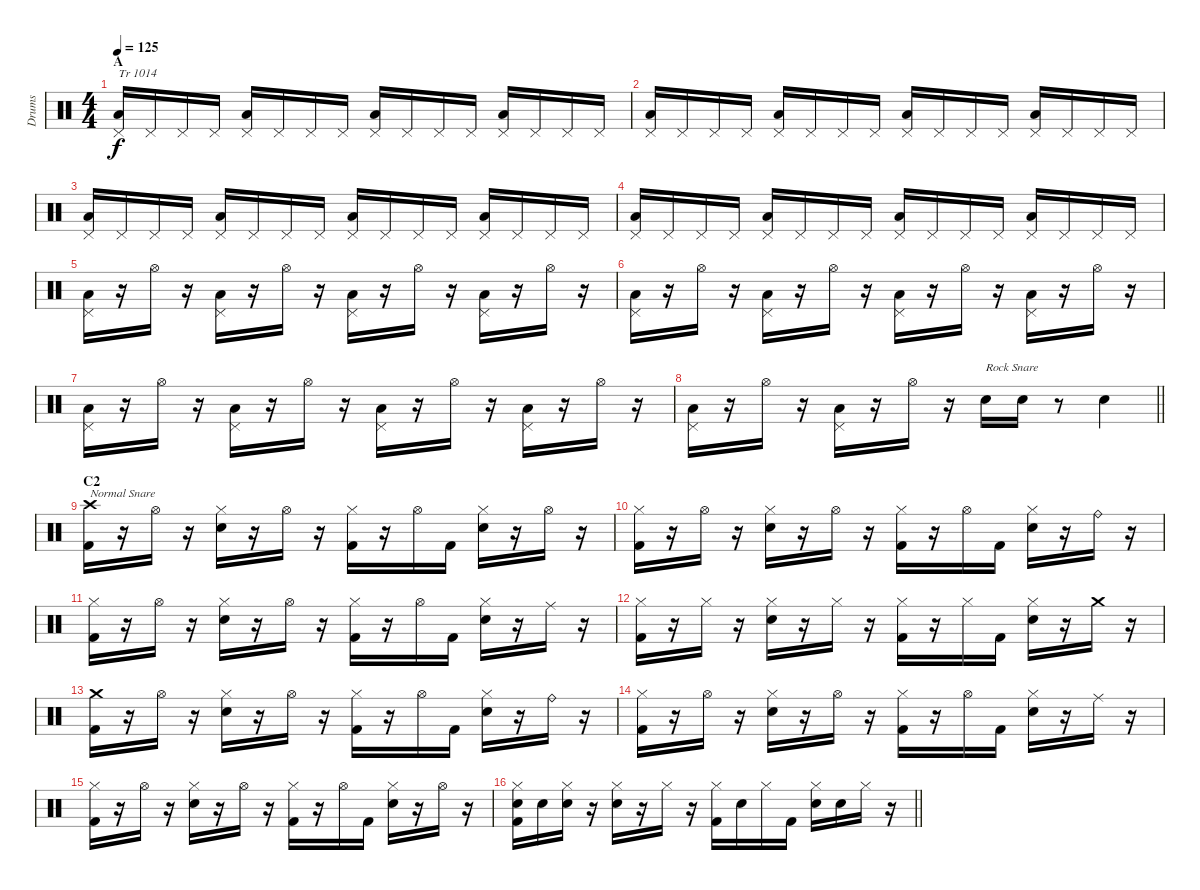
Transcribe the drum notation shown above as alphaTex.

\track ("Drums" "Drums") {instrument percussion}
\staff {score}
\articulation defaults
\ts (4 4)
\section ("" "A")
\tempo 125
\clef neutral
\ks c
("Pedal Hi-Hat (hit)" "Low Tom (hit)").16{txt "Tr 1014" dy f} "Pedal Hi-Hat (hit)".16 "Pedal Hi-Hat (hit)".16 "Pedal Hi-Hat (hit)".16 ("Pedal Hi-Hat (hit)" "Low Tom (hit)").16 "Pedal Hi-Hat (hit)".16 "Pedal Hi-Hat (hit)".16 "Pedal Hi-Hat (hit)".16 ("Pedal Hi-Hat (hit)" "Low Tom (hit)").16 "Pedal Hi-Hat (hit)".16 "Pedal Hi-Hat (hit)".16 "Pedal Hi-Hat (hit)".16 ("Pedal Hi-Hat (hit)" "Low Tom (hit)").16 "Pedal Hi-Hat (hit)".16 "Pedal Hi-Hat (hit)".16 "Pedal Hi-Hat (hit)".16 |
("Pedal Hi-Hat (hit)" "Low Tom (hit)").16 "Pedal Hi-Hat (hit)".16 "Pedal Hi-Hat (hit)".16 "Pedal Hi-Hat (hit)".16 ("Pedal Hi-Hat (hit)" "Low Tom (hit)").16 "Pedal Hi-Hat (hit)".16 "Pedal Hi-Hat (hit)".16 "Pedal Hi-Hat (hit)".16 ("Pedal Hi-Hat (hit)" "Low Tom (hit)").16 "Pedal Hi-Hat (hit)".16 "Pedal Hi-Hat (hit)".16 "Pedal Hi-Hat (hit)".16 ("Pedal Hi-Hat (hit)" "Low Tom (hit)").16 "Pedal Hi-Hat (hit)".16 "Pedal Hi-Hat (hit)".16 "Pedal Hi-Hat (hit)".16 |
("Pedal Hi-Hat (hit)" "Low Tom (hit)").16 "Pedal Hi-Hat (hit)".16 "Pedal Hi-Hat (hit)".16 "Pedal Hi-Hat (hit)".16 ("Pedal Hi-Hat (hit)" "Low Tom (hit)").16 "Pedal Hi-Hat (hit)".16 "Pedal Hi-Hat (hit)".16 "Pedal Hi-Hat (hit)".16 ("Pedal Hi-Hat (hit)" "Low Tom (hit)").16 "Pedal Hi-Hat (hit)".16 "Pedal Hi-Hat (hit)".16 "Pedal Hi-Hat (hit)".16 ("Pedal Hi-Hat (hit)" "Low Tom (hit)").16 "Pedal Hi-Hat (hit)".16 "Pedal Hi-Hat (hit)".16 "Pedal Hi-Hat (hit)".16 |
("Pedal Hi-Hat (hit)" "Low Tom (hit)").16 "Pedal Hi-Hat (hit)".16 "Pedal Hi-Hat (hit)".16 "Pedal Hi-Hat (hit)".16 ("Pedal Hi-Hat (hit)" "Low Tom (hit)").16 "Pedal Hi-Hat (hit)".16 "Pedal Hi-Hat (hit)".16 "Pedal Hi-Hat (hit)".16 ("Pedal Hi-Hat (hit)" "Low Tom (hit)").16 "Pedal Hi-Hat (hit)".16 "Pedal Hi-Hat (hit)".16 "Pedal Hi-Hat (hit)".16 ("Pedal Hi-Hat (hit)" "Low Tom (hit)").16 "Pedal Hi-Hat (hit)".16 "Pedal Hi-Hat (hit)".16 "Pedal Hi-Hat (hit)".16 |
("Pedal Hi-Hat (hit)" "Low Tom (hit)").16 r.16 "Hi-Hat (open)".16 r.16 ("Pedal Hi-Hat (hit)" "Low Tom (hit)").16 r.16 "Hi-Hat (open)".16 r.16 ("Pedal Hi-Hat (hit)" "Low Tom (hit)").16 r.16 "Hi-Hat (open)".16 r.16 ("Pedal Hi-Hat (hit)" "Low Tom (hit)").16 r.16 "Hi-Hat (open)".16 r.16 |
("Pedal Hi-Hat (hit)" "Low Tom (hit)").16 r.16 "Hi-Hat (open)".16 r.16 ("Pedal Hi-Hat (hit)" "Low Tom (hit)").16 r.16 "Hi-Hat (open)".16 r.16 ("Pedal Hi-Hat (hit)" "Low Tom (hit)").16 r.16 "Hi-Hat (open)".16 r.16 ("Pedal Hi-Hat (hit)" "Low Tom (hit)").16 r.16 "Hi-Hat (open)".16 r.16 |
("Pedal Hi-Hat (hit)" "Low Tom (hit)").16 r.16 "Hi-Hat (open)".16 r.16 ("Pedal Hi-Hat (hit)" "Low Tom (hit)").16 r.16 "Hi-Hat (open)".16 r.16 ("Pedal Hi-Hat (hit)" "Low Tom (hit)").16 r.16 "Hi-Hat (open)".16 r.16 ("Pedal Hi-Hat (hit)" "Low Tom (hit)").16 r.16 "Hi-Hat (open)".16 r.16 |
\barLineRight lightlight
("Pedal Hi-Hat (hit)" "Low Tom (hit)").16 r.16 "Hi-Hat (open)".16 r.16 ("Pedal Hi-Hat (hit)" "Low Tom (hit)").16 r.16 "Hi-Hat (open)".16 r.16 "Snare (hit) 2".16{txt "Rock Snare"} "Snare (hit) 2".16 r.8 "Snare (hit) 2".4 |
\section ("" "C2")
("Crash high (hit)" "Kick (hit) 2").16{txt "Normal Snare"} r.16 "Hi-Hat (open)".16 r.16 ("Hi-Hat (closed)" "Electric Snare (hit)").16 r.16 "Hi-Hat (open)".16 r.16 ("Hi-Hat (closed)" "Kick (hit) 2").16 r.16 "Hi-Hat (open)".16 "Kick (hit) 2".16 ("Hi-Hat (closed)" "Electric Snare (hit)").16 r.16 "Hi-Hat (open)".16 r.16 |
("Hi-Hat (closed)" "Kick (hit) 2").16 r.16 "Hi-Hat (open)".16 r.16 ("Hi-Hat (closed)" "Electric Snare (hit)").16 r.16 "Hi-Hat (open)".16 r.16 ("Hi-Hat (closed)" "Kick (hit) 2").16 r.16 "Hi-Hat (open)".16 "Kick (hit) 2".16 ("Hi-Hat (closed)" "Electric Snare (hit)").16 r.16 "Ride (bell)".16 r.16 |
("Hi-Hat (closed)" "Kick (hit) 2").16 r.16 "Hi-Hat (open)".16 r.16 ("Hi-Hat (closed)" "Electric Snare (hit)").16 r.16 "Hi-Hat (open)".16 r.16 ("Hi-Hat (closed)" "Kick (hit) 2").16 r.16 "Hi-Hat (open)".16 "Kick (hit) 2".16 ("Hi-Hat (closed)" "Electric Snare (hit)").16 r.16 "Ride (middle)".16 r.16 |
("Hi-Hat (closed)" "Kick (hit) 2").16 r.16 "Hi-Hat (closed)".16 r.16 ("Hi-Hat (closed)" "Electric Snare (hit)").16 r.16 "Hi-Hat (closed)".16 r.16 ("Hi-Hat (closed)" "Kick (hit) 2").16 r.16 "Hi-Hat (closed)".16 "Kick (hit) 2".16 ("Hi-Hat (closed)" "Electric Snare (hit)").16 r.16 "Crash medium (hit)".16 r.16 |
("Crash medium (hit)" "Kick (hit) 2").16 r.16 "Hi-Hat (open)".16 r.16 ("Hi-Hat (closed)" "Electric Snare (hit)").16 r.16 "Hi-Hat (open)".16 r.16 ("Hi-Hat (closed)" "Kick (hit) 2").16 r.16 "Hi-Hat (open)".16 "Kick (hit) 2".16 ("Hi-Hat (closed)" "Electric Snare (hit)").16 r.16 "Ride (bell)".16 r.16 |
("Hi-Hat (closed)" "Kick (hit) 2").16 r.16 "Hi-Hat (open)".16 r.16 ("Hi-Hat (closed)" "Electric Snare (hit)").16 r.16 "Hi-Hat (open)".16 r.16 ("Hi-Hat (closed)" "Kick (hit) 2").16 r.16 "Hi-Hat (open)".16 "Kick (hit) 2".16 ("Hi-Hat (closed)" "Electric Snare (hit)").16 r.16 "Ride (middle)".16 r.16 |
("Hi-Hat (closed)" "Kick (hit) 2").16 r.16 "Hi-Hat (open)".16 r.16 ("Hi-Hat (closed)" "Electric Snare (hit)").16 r.16 "Hi-Hat (open)".16 r.16 ("Hi-Hat (closed)" "Kick (hit) 2").16 r.16 "Hi-Hat (open)".16 "Kick (hit) 2".16 ("Hi-Hat (closed)" "Electric Snare (hit)").16 r.16 "Hi-Hat (open)".16 r.16 |
\barLineRight lightlight
("Hi-Hat (closed)" "Electric Snare (hit)" "Kick (hit) 2").16 "Electric Snare (hit)".16 ("Hi-Hat (closed)" "Electric Snare (hit)").16 r.16 ("Hi-Hat (closed)" "Electric Snare (hit)").16 r.16 "Hi-Hat (closed)".16 r.16 ("Hi-Hat (closed)" "Kick (hit) 2").16 "Electric Snare (hit)".16 "Hi-Hat (closed)".16 "Kick (hit) 2".16 ("Hi-Hat (closed)" "Electric Snare (hit)").16 "Electric Snare (hit)".16 "Hi-Hat (closed)".16 r.16
